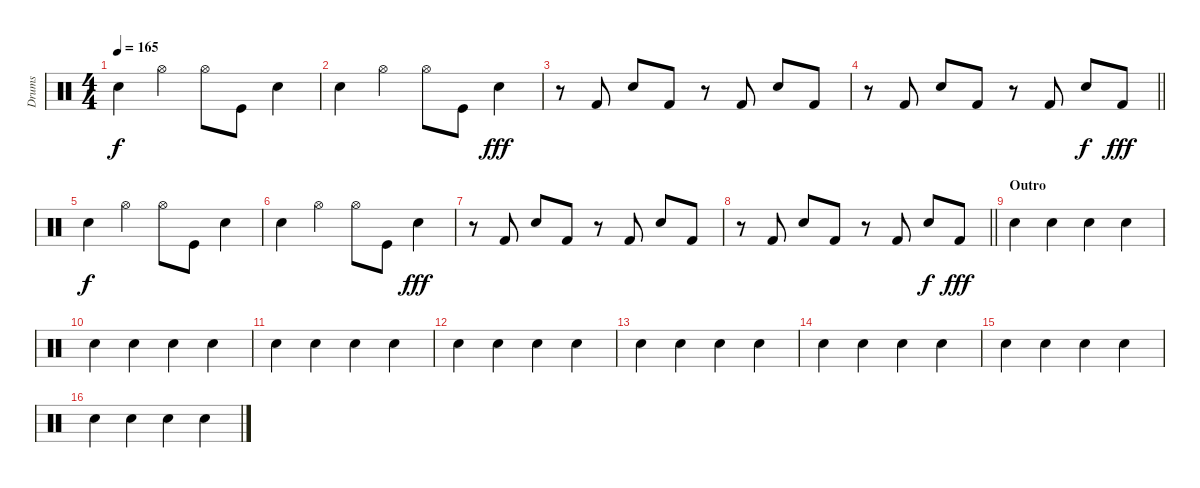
\track ("Drums" "Drums") {instrument percussion}
\staff {score}
\articulation defaults
\ts (4 4)
\tempo 165
\clef neutral
\ks c "Snare (hit) 2".4{dy f} "Hi-Hat (open)".4 "Hi-Hat (open)".8 "Kick (hit)".8 "Snare (hit) 2".4
|
"Snare (hit) 2".4 "Hi-Hat (open)".4 "Hi-Hat (open)".8 "Kick (hit)".8 "Snare (hit) 2".4{dy fff} |
r.8 "Kick (hit) 2".8 "Snare (hit) 2".8 "Kick (hit) 2".8 r.8 "Kick (hit) 2".8 "Snare (hit) 2".8 "Kick (hit) 2".8 |
\barLineRight lightlight
r.8 "Kick (hit) 2".8 "Snare (hit) 2".8 "Kick (hit) 2".8 r.8 "Kick (hit) 2".8 "Snare (hit) 2".8{dy f} "Kick (hit) 2".8{dy fff} |
"Snare (hit) 2".4{dy f} "Hi-Hat (open)".4 "Hi-Hat (open)".8 "Kick (hit)".8 "Snare (hit) 2".4 |
"Snare (hit) 2".4 "Hi-Hat (open)".4 "Hi-Hat (open)".8 "Kick (hit)".8 "Snare (hit) 2".4{dy fff} |
r.8 "Kick (hit) 2".8 "Snare (hit) 2".8 "Kick (hit) 2".8 r.8 "Kick (hit) 2".8 "Snare (hit) 2".8 "Kick (hit) 2".8 |
\barLineRight lightlight
r.8 "Kick (hit) 2".8 "Snare (hit) 2".8 "Kick (hit) 2".8 r.8 "Kick (hit) 2".8 "Snare (hit) 2".8{dy f} "Kick (hit) 2".8{dy fff} |
\section ("" "Outro")
"Electric Snare (hit)".4 "Electric Snare (hit)".4 "Electric Snare (hit)".4 "Electric Snare (hit)".4 |
"Electric Snare (hit)".4 "Electric Snare (hit)".4 "Electric Snare (hit)".4 "Electric Snare (hit)".4 |
"Electric Snare (hit)".4 "Electric Snare (hit)".4 "Electric Snare (hit)".4 "Electric Snare (hit)".4 |
"Electric Snare (hit)".4 "Electric Snare (hit)".4 "Electric Snare (hit)".4 "Electric Snare (hit)".4 |
"Electric Snare (hit)".4 "Electric Snare (hit)".4 "Electric Snare (hit)".4 "Electric Snare (hit)".4 |
"Electric Snare (hit)".4 "Electric Snare (hit)".4 "Electric Snare (hit)".4 "Electric Snare (hit)".4 |
"Electric Snare (hit)".4 "Electric Snare (hit)".4 "Electric Snare (hit)".4 "Electric Snare (hit)".4 |
"Electric Snare (hit)".4 "Electric Snare (hit)".4 "Electric Snare (hit)".4 "Electric Snare (hit)".4
